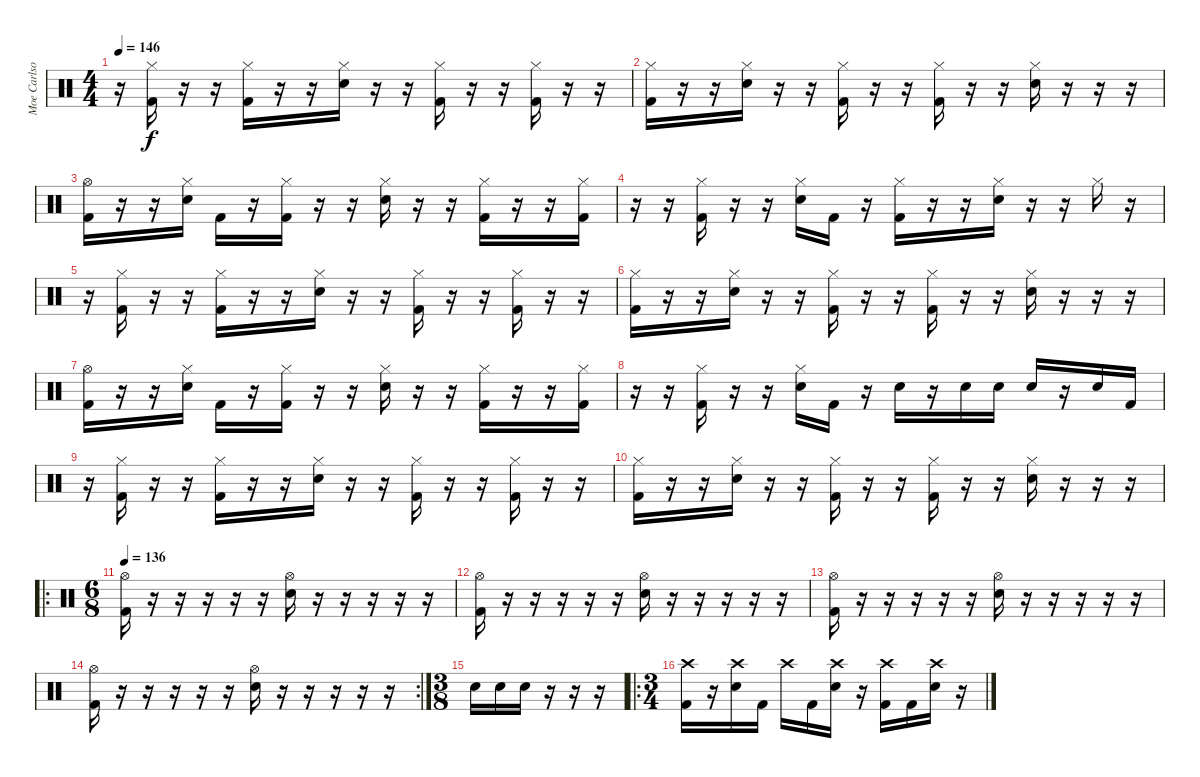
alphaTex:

\track ("Moe Carlson" "Moe Carlso") {instrument percussion}
\staff {score}
\articulation defaults
\ts (4 4)
\tempo 146
\clef neutral
\ks c
r.16{dy f} ("Hi-Hat (closed)" "Kick (hit) 2").16 r.16 r.16 ("Hi-Hat (closed)" "Kick (hit) 2").16 r.16 r.16 ("Hi-Hat (closed)" "Electric Snare (hit)").16 r.16 r.16 ("Hi-Hat (closed)" "Kick (hit) 2").16 r.16 r.16 ("Hi-Hat (closed)" "Kick (hit) 2").16 r.16 r.16 |
("Hi-Hat (closed)" "Kick (hit) 2").16 r.16 r.16 ("Hi-Hat (closed)" "Electric Snare (hit)").16 r.16 r.16 ("Hi-Hat (closed)" "Kick (hit) 2").16 r.16 r.16 ("Hi-Hat (closed)" "Kick (hit) 2").16 r.16 r.16 ("Hi-Hat (closed)" "Electric Snare (hit)").16 r.16 r.16 r.16 |
("Hi-Hat (open)" "Kick (hit) 2").16 r.16 r.16 ("Hi-Hat (closed)" "Electric Snare (hit)").16 "Kick (hit) 2".16 r.16 ("Hi-Hat (closed)" "Kick (hit) 2").16 r.16 r.16 ("Hi-Hat (closed)" "Electric Snare (hit)").16 r.16 r.16 ("Hi-Hat (closed)" "Kick (hit) 2").16 r.16 r.16 ("Hi-Hat (closed)" "Kick (hit) 2").16 |
r.16 r.16 ("Hi-Hat (closed)" "Kick (hit) 2").16 r.16 r.16 ("Hi-Hat (closed)" "Electric Snare (hit)").16 "Kick (hit) 2".16 r.16 ("Hi-Hat (closed)" "Kick (hit) 2").16 r.16 r.16 ("Hi-Hat (closed)" "Electric Snare (hit)").16 r.16 r.16 "Hi-Hat (closed)".16 r.16 |
r.16 ("Hi-Hat (closed)" "Kick (hit) 2").16 r.16 r.16 ("Hi-Hat (closed)" "Kick (hit) 2").16 r.16 r.16 ("Hi-Hat (closed)" "Electric Snare (hit)").16 r.16 r.16 ("Hi-Hat (closed)" "Kick (hit) 2").16 r.16 r.16 ("Hi-Hat (closed)" "Kick (hit) 2").16 r.16 r.16 |
("Hi-Hat (closed)" "Kick (hit) 2").16 r.16 r.16 ("Hi-Hat (closed)" "Electric Snare (hit)").16 r.16 r.16 ("Hi-Hat (closed)" "Kick (hit) 2").16 r.16 r.16 ("Hi-Hat (closed)" "Kick (hit) 2").16 r.16 r.16 ("Hi-Hat (closed)" "Electric Snare (hit)").16 r.16 r.16 r.16 |
("Hi-Hat (open)" "Kick (hit) 2").16 r.16 r.16 ("Hi-Hat (closed)" "Electric Snare (hit)").16 "Kick (hit) 2".16 r.16 ("Hi-Hat (closed)" "Kick (hit) 2").16 r.16 r.16 ("Hi-Hat (closed)" "Electric Snare (hit)").16 r.16 r.16 ("Hi-Hat (closed)" "Kick (hit) 2").16 r.16 r.16 ("Hi-Hat (closed)" "Kick (hit) 2").16 |
r.16 r.16 ("Hi-Hat (closed)" "Kick (hit) 2").16 r.16 r.16 ("Hi-Hat (closed)" "Electric Snare (hit)").16 "Kick (hit) 2".16 r.16 "Electric Snare (hit)".16 r.16 "Electric Snare (hit)".16 "Electric Snare (hit)".16 "Electric Snare (hit)".16 r.16 "Electric Snare (hit)".16 "Kick (hit) 2".16 |
r.16 ("Hi-Hat (closed)" "Kick (hit) 2").16 r.16 r.16 ("Hi-Hat (closed)" "Kick (hit) 2").16 r.16 r.16 ("Hi-Hat (closed)" "Electric Snare (hit)").16 r.16 r.16 ("Hi-Hat (closed)" "Kick (hit) 2").16 r.16 r.16 ("Hi-Hat (closed)" "Kick (hit) 2").16 r.16 r.16 |
("Hi-Hat (closed)" "Kick (hit) 2").16 r.16 r.16 ("Hi-Hat (closed)" "Electric Snare (hit)").16 r.16 r.16 ("Hi-Hat (closed)" "Kick (hit) 2").16 r.16 r.16 ("Hi-Hat (closed)" "Kick (hit) 2").16 r.16 r.16 ("Hi-Hat (closed)" "Electric Snare (hit)").16 r.16 r.16 r.16 |
\ro
\ts (6 8)
\tempo 136
("Hi-Hat (open)" "Kick (hit) 2").16 r.16 r.16 r.16 r.16 r.16 ("Hi-Hat (open)" "Electric Snare (hit)").16 r.16 r.16 r.16 r.16 r.16 |
("Hi-Hat (open)" "Kick (hit) 2").16 r.16 r.16 r.16 r.16 r.16 ("Hi-Hat (open)" "Electric Snare (hit)").16 r.16 r.16 r.16 r.16 r.16 |
("Hi-Hat (open)" "Kick (hit) 2").16 r.16 r.16 r.16 r.16 r.16 ("Hi-Hat (open)" "Electric Snare (hit)").16 r.16 r.16 r.16 r.16 r.16 |
\rc 2
("Hi-Hat (open)" "Kick (hit) 2").16 r.16 r.16 r.16 r.16 r.16 ("Hi-Hat (open)" "Electric Snare (hit)").16 r.16 r.16 r.16 r.16 r.16 |
\ts (3 8)
"Electric Snare (hit)".16 "Electric Snare (hit)".16 "Electric Snare (hit)".16 r.16 r.16 r.16 |
\ro
\ts (3 4)
("Crash high (hit)" "Kick (hit) 2").16 r.16 ("Crash high (hit)" "Electric Snare (hit)").16 "Kick (hit) 2".16 "Crash high (hit)".16 "Kick (hit) 2".16 ("Crash high (hit)" "Electric Snare (hit)").16 r.16 ("Crash high (hit)" "Kick (hit) 2").16 "Kick (hit) 2".16 ("Crash high (hit)" "Electric Snare (hit)").16 r.16
